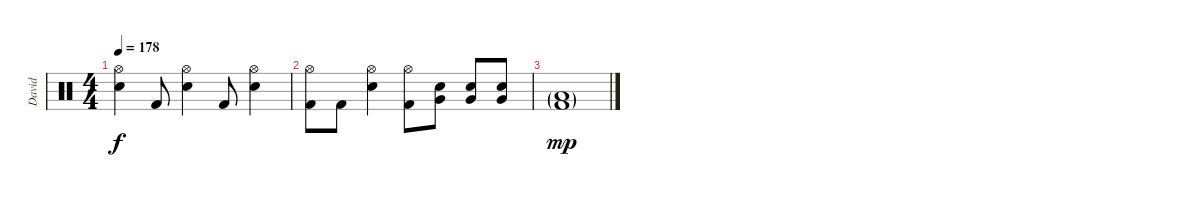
\track ("David" "David") {instrument percussion}
\staff {score}
\articulation defaults
\ts (4 4)
\tempo 178
\clef neutral
\ks c
("Hi-Hat (open)" "Electric Snare (hit)").4{dy f} "Kick (hit) 2".8 ("Hi-Hat (open)" "Electric Snare (hit)").4 "Kick (hit) 2".8 ("Hi-Hat (open)" "Electric Snare (hit)").4 |
("Hi-Hat (open)" "Kick (hit) 2").8 "Kick (hit) 2".8 ("Hi-Hat (open)" "Electric Snare (hit)").4 ("Hi-Hat (open)" "Kick (hit) 2").8 ("Electric Snare (hit)" "Very Low Tom (hit)").8 ("Electric Snare (hit)" "Very Low Tom (hit)").8 ("Electric Snare (hit)" "Very Low Tom (hit)").8 |
("Low Floor Tom (hit)"{g} "Kick (hit) 2"{g}).1{dy mp}
